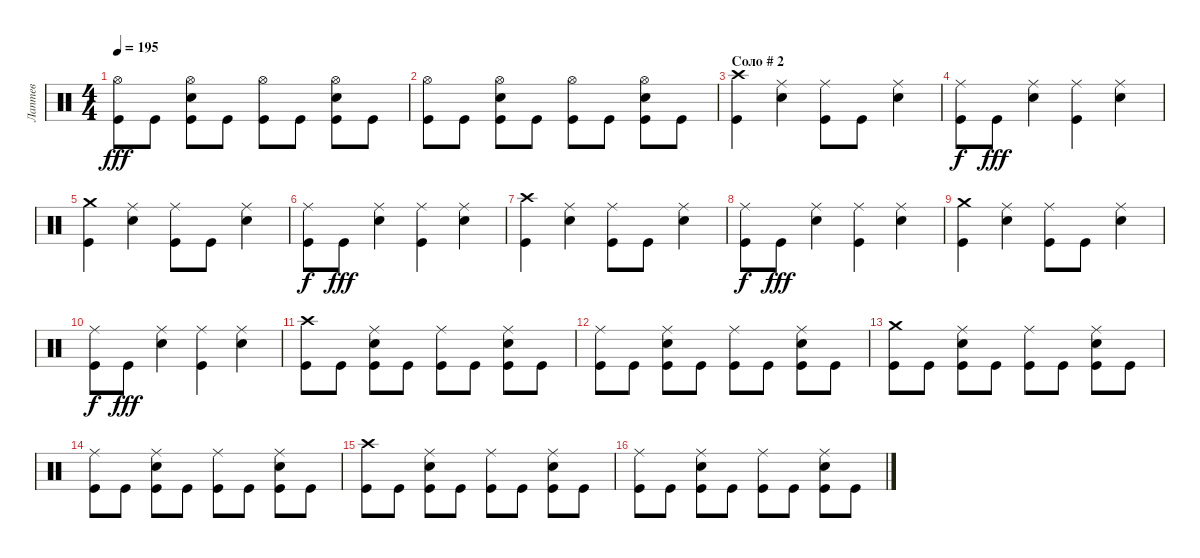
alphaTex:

\track ("Лаптев" "Лаптев") {instrument percussion}
\staff {score}
\articulation defaults
\ts (4 4)
\tempo 195
\clef neutral
\ks c
("Hi-Hat (open)" "Kick (hit)").8{dy fff} "Kick (hit)".8 ("Hi-Hat (open)" "Electric Snare (hit)" "Kick (hit)").8 "Kick (hit)".8 ("Hi-Hat (open)" "Kick (hit)").8 "Kick (hit)".8 ("Hi-Hat (open)" "Electric Snare (hit)" "Kick (hit)").8 "Kick (hit)".8 |
("Hi-Hat (open)" "Kick (hit)").8 "Kick (hit)".8 ("Hi-Hat (open)" "Electric Snare (hit)" "Kick (hit)").8 "Kick (hit)".8 ("Hi-Hat (open)" "Kick (hit)").8 "Kick (hit)".8 ("Hi-Hat (open)" "Electric Snare (hit)" "Kick (hit)").8 "Kick (hit)".8 |
\section ("" "Соло # 2")
("Crash high (hit)" "Kick (hit)").4 ("Ride (middle)" "Electric Snare (hit)").4 ("Ride (middle)" "Kick (hit)").8 "Kick (hit)".8 ("Ride (middle)" "Electric Snare (hit)").4 |
("Ride (middle)" "Kick (hit)").8{dy f} "Kick (hit)".8{dy fff} ("Ride (middle)" "Electric Snare (hit)").4 ("Ride (middle)" "Kick (hit)").4 ("Ride (middle)" "Electric Snare (hit)").4 |
("Crash medium (hit)" "Kick (hit)").4 ("Ride (middle)" "Electric Snare (hit)").4 ("Ride (middle)" "Kick (hit)").8 "Kick (hit)".8 ("Ride (middle)" "Electric Snare (hit)").4 |
("Ride (middle)" "Kick (hit)").8{dy f} "Kick (hit)".8{dy fff} ("Ride (middle)" "Electric Snare (hit)").4 ("Ride (middle)" "Kick (hit)").4 ("Ride (middle)" "Electric Snare (hit)").4 |
("Crash high (hit)" "Kick (hit)").4 ("Ride (middle)" "Electric Snare (hit)").4 ("Ride (middle)" "Kick (hit)").8 "Kick (hit)".8 ("Ride (middle)" "Electric Snare (hit)").4 |
("Ride (middle)" "Kick (hit)").8{dy f} "Kick (hit)".8{dy fff} ("Ride (middle)" "Electric Snare (hit)").4 ("Ride (middle)" "Kick (hit)").4 ("Ride (middle)" "Electric Snare (hit)").4 |
("Crash medium (hit)" "Kick (hit)").4 ("Ride (middle)" "Electric Snare (hit)").4 ("Ride (middle)" "Kick (hit)").8 "Kick (hit)".8 ("Ride (middle)" "Electric Snare (hit)").4 |
("Ride (middle)" "Kick (hit)").8{dy f} "Kick (hit)".8{dy fff} ("Ride (middle)" "Electric Snare (hit)").4 ("Ride (middle)" "Kick (hit)").4 ("Ride (middle)" "Electric Snare (hit)").4 |
("Crash high (hit)" "Kick (hit)").8 "Kick (hit)".8 ("Ride (middle)" "Electric Snare (hit)" "Kick (hit)").8 "Kick (hit)".8 ("Ride (middle)" "Kick (hit)").8 "Kick (hit)".8 ("Ride (middle)" "Electric Snare (hit)" "Kick (hit)").8 "Kick (hit)".8 |
("Ride (middle)" "Kick (hit)").8 "Kick (hit)".8 ("Ride (middle)" "Electric Snare (hit)" "Kick (hit)").8 "Kick (hit)".8 ("Ride (middle)" "Kick (hit)").8 "Kick (hit)".8 ("Ride (middle)" "Electric Snare (hit)" "Kick (hit)").8 "Kick (hit)".8 |
("Crash medium (hit)" "Kick (hit)").8 "Kick (hit)".8 ("Ride (middle)" "Electric Snare (hit)" "Kick (hit)").8 "Kick (hit)".8 ("Ride (middle)" "Kick (hit)").8 "Kick (hit)".8 ("Ride (middle)" "Electric Snare (hit)" "Kick (hit)").8 "Kick (hit)".8 |
("Ride (middle)" "Kick (hit)").8 "Kick (hit)".8 ("Ride (middle)" "Electric Snare (hit)" "Kick (hit)").8 "Kick (hit)".8 ("Ride (middle)" "Kick (hit)").8 "Kick (hit)".8 ("Ride (middle)" "Electric Snare (hit)" "Kick (hit)").8 "Kick (hit)".8 |
("Crash high (hit)" "Kick (hit)").8 "Kick (hit)".8 ("Ride (middle)" "Electric Snare (hit)" "Kick (hit)").8 "Kick (hit)".8 ("Ride (middle)" "Kick (hit)").8 "Kick (hit)".8 ("Ride (middle)" "Electric Snare (hit)" "Kick (hit)").8 "Kick (hit)".8 |
("Ride (middle)" "Kick (hit)").8 "Kick (hit)".8 ("Ride (middle)" "Electric Snare (hit)" "Kick (hit)").8 "Kick (hit)".8 ("Ride (middle)" "Kick (hit)").8 "Kick (hit)".8 ("Ride (middle)" "Electric Snare (hit)" "Kick (hit)").8 "Kick (hit)".8
